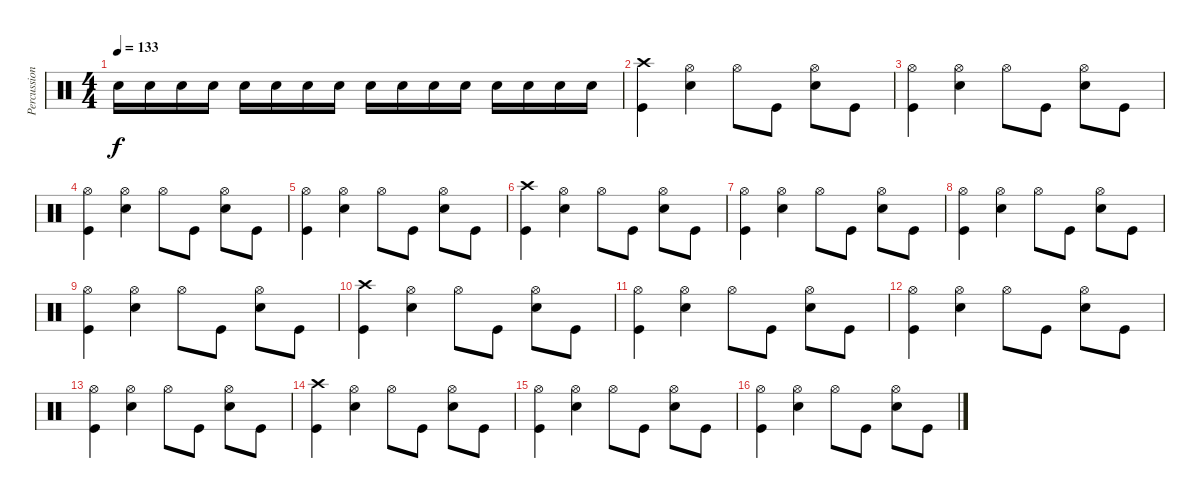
\track ("Percussion" "Percussion") {instrument percussion}
\staff {score}
\articulation defaults
\ts (4 4)
\tempo 133
\clef neutral
\ks c "Electric Snare (hit)".16{dy f} "Electric Snare (hit)".16 "Electric Snare (hit)".16 "Electric Snare (hit)".16 "Electric Snare (hit)".16 "Electric Snare (hit)".16 "Electric Snare (hit)".16 "Electric Snare (hit)".16 "Electric Snare (hit)".16 "Electric Snare (hit)".16 "Electric Snare (hit)".16 "Electric Snare (hit)".16 "Electric Snare (hit)".16 "Electric Snare (hit)".16 "Electric Snare (hit)".16 "Electric Snare (hit)".16
|
("Crash high (hit)" "Kick (hit)").4 ("Hi-Hat (open)" "Electric Snare (hit)").4 "Hi-Hat (open)".8 "Kick (hit)".8 ("Hi-Hat (open)" "Electric Snare (hit)").8 "Kick (hit)".8 |
("Hi-Hat (open)" "Kick (hit)").4 ("Hi-Hat (open)" "Electric Snare (hit)").4 "Hi-Hat (open)".8 "Kick (hit)".8 ("Hi-Hat (open)" "Electric Snare (hit)").8 "Kick (hit)".8 |
("Hi-Hat (open)" "Kick (hit)").4 ("Hi-Hat (open)" "Electric Snare (hit)").4 "Hi-Hat (open)".8 "Kick (hit)".8 ("Hi-Hat (open)" "Electric Snare (hit)").8 "Kick (hit)".8 |
("Hi-Hat (open)" "Kick (hit)").4 ("Hi-Hat (open)" "Electric Snare (hit)").4 "Hi-Hat (open)".8 "Kick (hit)".8 ("Hi-Hat (open)" "Electric Snare (hit)").8 "Kick (hit)".8 |
("Crash high (hit)" "Kick (hit)").4 ("Hi-Hat (open)" "Electric Snare (hit)").4 "Hi-Hat (open)".8 "Kick (hit)".8 ("Hi-Hat (open)" "Electric Snare (hit)").8 "Kick (hit)".8 |
("Hi-Hat (open)" "Kick (hit)").4 ("Hi-Hat (open)" "Electric Snare (hit)").4 "Hi-Hat (open)".8 "Kick (hit)".8 ("Hi-Hat (open)" "Electric Snare (hit)").8 "Kick (hit)".8 |
("Hi-Hat (open)" "Kick (hit)").4 ("Hi-Hat (open)" "Electric Snare (hit)").4 "Hi-Hat (open)".8 "Kick (hit)".8 ("Hi-Hat (open)" "Electric Snare (hit)").8 "Kick (hit)".8 |
("Hi-Hat (open)" "Kick (hit)").4 ("Hi-Hat (open)" "Electric Snare (hit)").4 "Hi-Hat (open)".8 "Kick (hit)".8 ("Hi-Hat (open)" "Electric Snare (hit)").8 "Kick (hit)".8 |
("Crash high (hit)" "Kick (hit)").4 ("Hi-Hat (open)" "Electric Snare (hit)").4 "Hi-Hat (open)".8 "Kick (hit)".8 ("Hi-Hat (open)" "Electric Snare (hit)").8 "Kick (hit)".8 |
("Hi-Hat (open)" "Kick (hit)").4 ("Hi-Hat (open)" "Electric Snare (hit)").4 "Hi-Hat (open)".8 "Kick (hit)".8 ("Hi-Hat (open)" "Electric Snare (hit)").8 "Kick (hit)".8 |
("Hi-Hat (open)" "Kick (hit)").4 ("Hi-Hat (open)" "Electric Snare (hit)").4 "Hi-Hat (open)".8 "Kick (hit)".8 ("Hi-Hat (open)" "Electric Snare (hit)").8 "Kick (hit)".8 |
("Hi-Hat (open)" "Kick (hit)").4 ("Hi-Hat (open)" "Electric Snare (hit)").4 "Hi-Hat (open)".8 "Kick (hit)".8 ("Hi-Hat (open)" "Electric Snare (hit)").8 "Kick (hit)".8 |
("Crash high (hit)" "Kick (hit)").4 ("Hi-Hat (open)" "Electric Snare (hit)").4 "Hi-Hat (open)".8 "Kick (hit)".8 ("Hi-Hat (open)" "Electric Snare (hit)").8 "Kick (hit)".8 |
("Hi-Hat (open)" "Kick (hit)").4 ("Hi-Hat (open)" "Electric Snare (hit)").4 "Hi-Hat (open)".8 "Kick (hit)".8 ("Hi-Hat (open)" "Electric Snare (hit)").8 "Kick (hit)".8 |
("Hi-Hat (open)" "Kick (hit)").4 ("Hi-Hat (open)" "Electric Snare (hit)").4 "Hi-Hat (open)".8 "Kick (hit)".8 ("Hi-Hat (open)" "Electric Snare (hit)").8 "Kick (hit)".8
